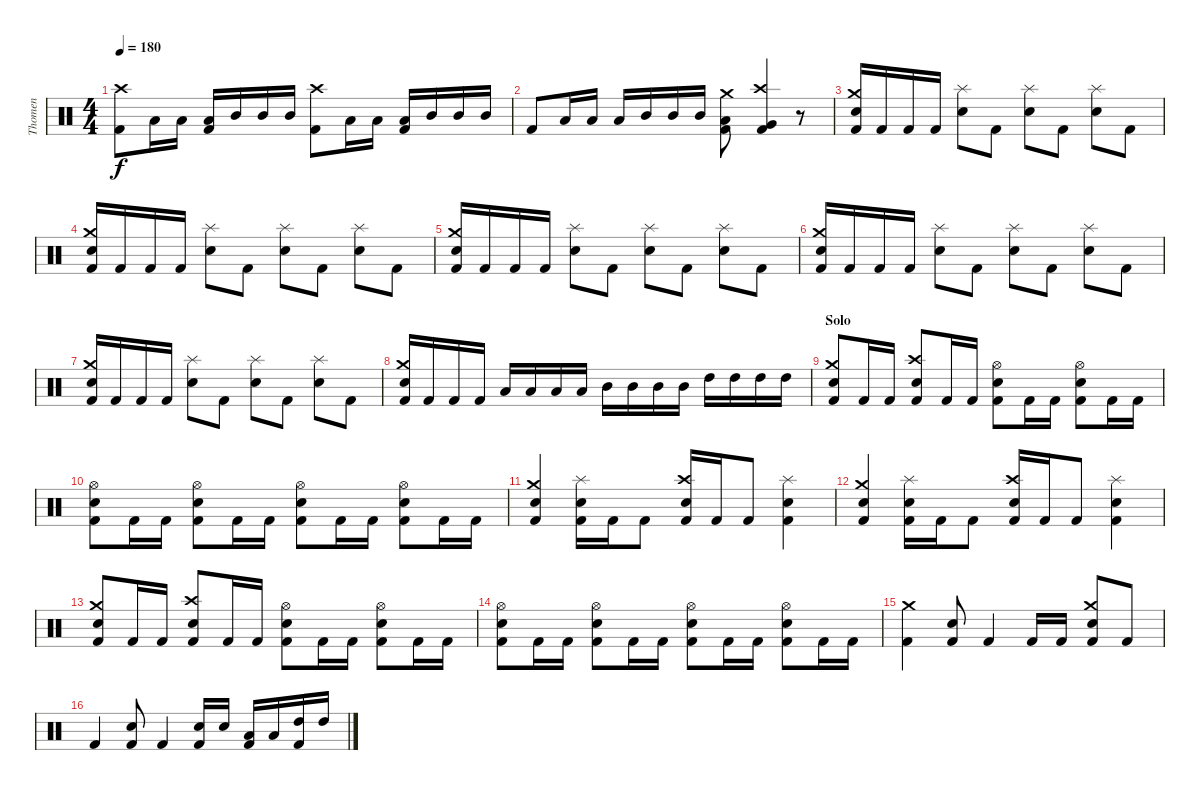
\track ("Thomen" "Thomen") {instrument percussion}
\staff {score}
\articulation defaults
\ts (4 4)
\tempo 180
\clef neutral
\ks c
("Kick (hit) 2" "Crash high (hit)").8{dy f} "Low Tom (hit)".16 "Low Tom (hit)".16 ("Kick (hit) 2" "Low Tom (hit)").16 "Mid Tom (hit)".16 "Mid Tom (hit)".16 "Mid Tom (hit)".16 ("Kick (hit) 2" "Crash high (hit)").8 "Low Tom (hit)".16 "Low Tom (hit)".16 ("Kick (hit) 2" "Low Tom (hit)").16 "Mid Tom (hit)".16 "Mid Tom (hit)".16 "Mid Tom (hit)".16 |
"Kick (hit) 2".8 "Low Tom (hit)".16 "Low Tom (hit)".16 "Low Tom (hit)".16 "Mid Tom (hit)".16 "Mid Tom (hit)".16 "Mid Tom (hit)".16 ("Kick (hit) 2" "Low Floor Tom (hit)" "Crash medium (hit)").8 ("Kick (hit) 2" "Very Low Tom (hit)" "Crash high (hit)").4 r.8 |
("Kick (hit) 2" "Electric Snare (hit)" "Crash medium (hit)").16 "Kick (hit) 2".16 "Kick (hit) 2".16 "Kick (hit) 2".16 ("Electric Snare (hit)" "Splash (hit)").8 "Kick (hit) 2".8 ("Electric Snare (hit)" "Splash (hit)").8 "Kick (hit) 2".8 ("Electric Snare (hit)" "Splash (hit)").8 "Kick (hit) 2".8 |
("Kick (hit) 2" "Electric Snare (hit)" "Crash medium (hit)").16 "Kick (hit) 2".16 "Kick (hit) 2".16 "Kick (hit) 2".16 ("Electric Snare (hit)" "Splash (hit)").8 "Kick (hit) 2".8 ("Electric Snare (hit)" "Splash (hit)").8 "Kick (hit) 2".8 ("Electric Snare (hit)" "Splash (hit)").8 "Kick (hit) 2".8 |
("Kick (hit) 2" "Electric Snare (hit)" "Crash medium (hit)").16 "Kick (hit) 2".16 "Kick (hit) 2".16 "Kick (hit) 2".16 ("Electric Snare (hit)" "Splash (hit)").8 "Kick (hit) 2".8 ("Electric Snare (hit)" "Splash (hit)").8 "Kick (hit) 2".8 ("Electric Snare (hit)" "Splash (hit)").8 "Kick (hit) 2".8 |
("Kick (hit) 2" "Electric Snare (hit)" "Crash medium (hit)").16 "Kick (hit) 2".16 "Kick (hit) 2".16 "Kick (hit) 2".16 ("Electric Snare (hit)" "Splash (hit)").8 "Kick (hit) 2".8 ("Electric Snare (hit)" "Splash (hit)").8 "Kick (hit) 2".8 ("Electric Snare (hit)" "Splash (hit)").8 "Kick (hit) 2".8 |
("Kick (hit) 2" "Electric Snare (hit)" "Crash medium (hit)").16 "Kick (hit) 2".16 "Kick (hit) 2".16 "Kick (hit) 2".16 ("Electric Snare (hit)" "Splash (hit)").8 "Kick (hit) 2".8 ("Electric Snare (hit)" "Splash (hit)").8 "Kick (hit) 2".8 ("Electric Snare (hit)" "Splash (hit)").8 "Kick (hit) 2".8 |
("Kick (hit) 2" "Electric Snare (hit)" "Crash medium (hit)").16 "Kick (hit) 2".16 "Kick (hit) 2".16 "Kick (hit) 2".16 "Low Tom (hit)".16 "Low Tom (hit)".16 "Low Tom (hit)".16 "Low Tom (hit)".16 "Mid Tom (hit)".16 "Mid Tom (hit)".16 "Mid Tom (hit)".16 "Mid Tom (hit)".16 "High Tom (hit)".16 "High Tom (hit)".16 "High Tom (hit)".16 "High Tom (hit)".16 |
\section ("" "Solo")
("Kick (hit) 2" "Electric Snare (hit)" "Crash medium (hit)").8 "Kick (hit) 2".16 "Kick (hit) 2".16 ("Kick (hit) 2" "Electric Snare (hit)" "Crash high (hit)").8 "Kick (hit) 2".16 "Kick (hit) 2".16 ("Kick (hit) 2" "Electric Snare (hit)" "Hi-Hat (open)").8 "Kick (hit) 2".16 "Kick (hit) 2".16 ("Kick (hit) 2" "Electric Snare (hit)" "Hi-Hat (open)").8 "Kick (hit) 2".16 "Kick (hit) 2".16 |
("Kick (hit) 2" "Electric Snare (hit)" "Hi-Hat (open)").8 "Kick (hit) 2".16 "Kick (hit) 2".16 ("Kick (hit) 2" "Electric Snare (hit)" "Hi-Hat (open)").8 "Kick (hit) 2".16 "Kick (hit) 2".16 ("Kick (hit) 2" "Electric Snare (hit)" "Hi-Hat (open)").8 "Kick (hit) 2".16 "Kick (hit) 2".16 ("Kick (hit) 2" "Electric Snare (hit)" "Hi-Hat (open)").8 "Kick (hit) 2".16 "Kick (hit) 2".16 |
("Kick (hit) 2" "Electric Snare (hit)" "Crash medium (hit)").4 ("Kick (hit) 2" "Electric Snare (hit)" "Splash (hit)").16 "Kick (hit) 2".16 "Kick (hit) 2".8 ("Kick (hit) 2" "Electric Snare (hit)" "Crash high (hit)").16 "Kick (hit) 2".16 "Kick (hit) 2".8 ("Kick (hit) 2" "Electric Snare (hit)" "Splash (hit)").4 |
("Kick (hit) 2" "Electric Snare (hit)" "Crash medium (hit)").4 ("Kick (hit) 2" "Electric Snare (hit)" "Splash (hit)").16 "Kick (hit) 2".16 "Kick (hit) 2".8 ("Kick (hit) 2" "Electric Snare (hit)" "Crash high (hit)").16 "Kick (hit) 2".16 "Kick (hit) 2".8 ("Kick (hit) 2" "Electric Snare (hit)" "Splash (hit)").4 |
("Kick (hit) 2" "Electric Snare (hit)" "Crash medium (hit)").8 "Kick (hit) 2".16 "Kick (hit) 2".16 ("Kick (hit) 2" "Electric Snare (hit)" "Crash high (hit)").8 "Kick (hit) 2".16 "Kick (hit) 2".16 ("Kick (hit) 2" "Electric Snare (hit)" "Hi-Hat (open)").8 "Kick (hit) 2".16 "Kick (hit) 2".16 ("Kick (hit) 2" "Electric Snare (hit)" "Hi-Hat (open)").8 "Kick (hit) 2".16 "Kick (hit) 2".16 |
("Kick (hit) 2" "Electric Snare (hit)" "Hi-Hat (open)").8 "Kick (hit) 2".16 "Kick (hit) 2".16 ("Kick (hit) 2" "Electric Snare (hit)" "Hi-Hat (open)").8 "Kick (hit) 2".16 "Kick (hit) 2".16 ("Kick (hit) 2" "Electric Snare (hit)" "Hi-Hat (open)").8 "Kick (hit) 2".16 "Kick (hit) 2".16 ("Kick (hit) 2" "Electric Snare (hit)" "Hi-Hat (open)").8 "Kick (hit) 2".16 "Kick (hit) 2".16 |
("Kick (hit) 2" "Crash medium (hit)").4 ("Kick (hit) 2" "Electric Snare (hit)").8 "Kick (hit) 2".4 "Kick (hit) 2".16 "Kick (hit) 2".16 ("Kick (hit) 2" "Electric Snare (hit)" "Crash medium (hit)").8 "Kick (hit) 2".8 |
"Kick (hit) 2".4 ("Kick (hit) 2" "Electric Snare (hit)").8 "Kick (hit) 2".4 ("Kick (hit) 2" "Electric Snare (hit)").16 "Electric Snare (hit)".16 ("Kick (hit) 2" "Low Tom (hit)").16 "Low Tom (hit)".16 ("Kick (hit) 2" "High Tom (hit)").16 "High Tom (hit)".16
